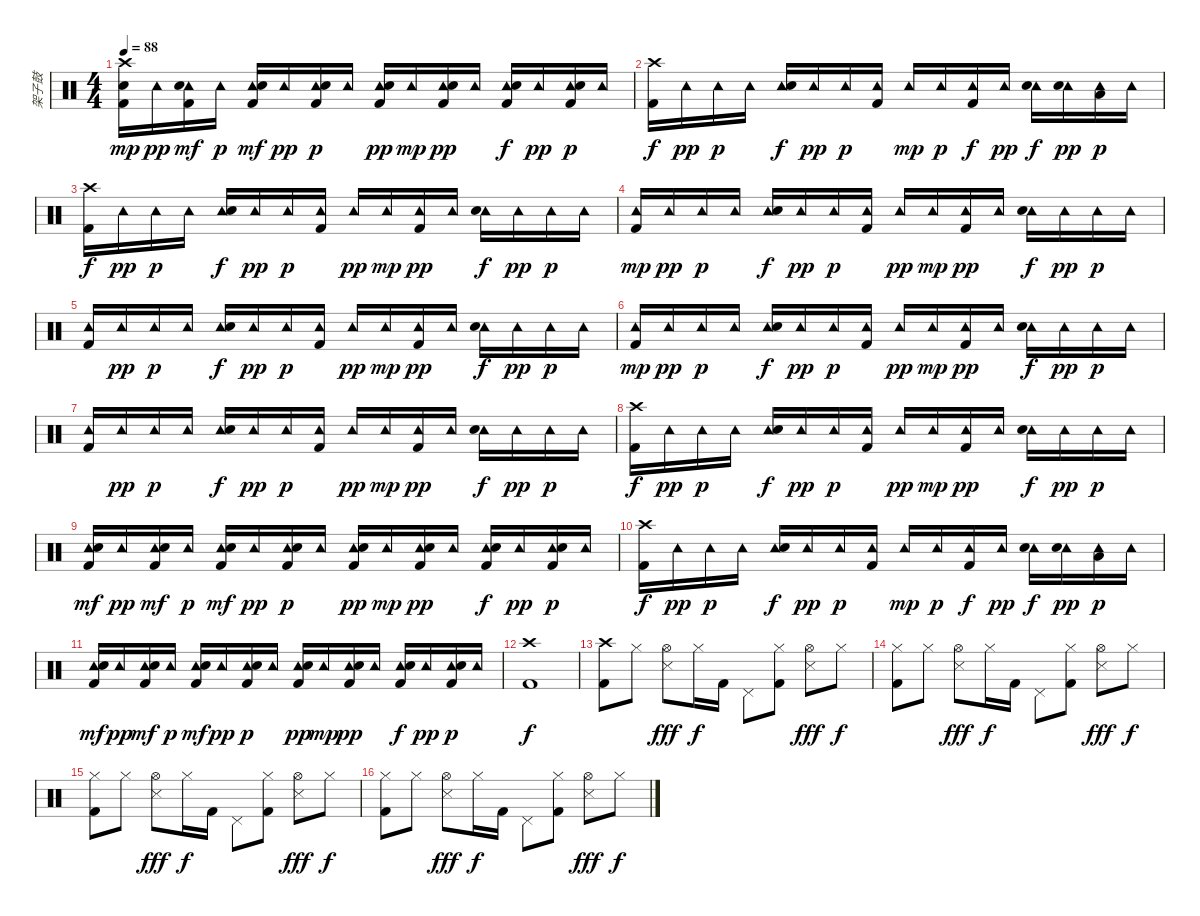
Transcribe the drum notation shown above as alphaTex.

\track ("架子鼓" "架子鼓") {instrument percussion}
\staff {score}
\articulation defaults
\ts (4 4)
\tempo 88
\clef neutral
\ks c
("Crash high (hit)" "Kick (hit) 2" "Electric Snare (hit)").16{dy mp} "Tambourine (hit)".16{dy pp} ("Tambourine (hit)" "Kick (hit) 2" "Electric Snare (hit)").16{dy mf} "Tambourine (hit)".16{dy p} ("Tambourine (hit)" "Kick (hit) 2" "Electric Snare (hit)").16{dy mf} "Tambourine (hit)".16{dy pp} ("Tambourine (hit)" "Kick (hit) 2" "Electric Snare (hit)").16{dy p} "Tambourine (hit)".16 ("Tambourine (hit)" "Kick (hit) 2" "Electric Snare (hit)").16{dy pp} "Tambourine (hit)".16{dy mp} ("Tambourine (hit)" "Kick (hit) 2" "Electric Snare (hit)").16{dy pp} "Tambourine (hit)".16 ("Tambourine (hit)" "Kick (hit) 2" "Electric Snare (hit)").16{dy f} "Tambourine (hit)".16{dy pp} ("Tambourine (hit)" "Kick (hit) 2" "Electric Snare (hit)").16{dy p} "Tambourine (hit)".16 |
("Crash high (hit)" "Kick (hit) 2").16{dy f} "Tambourine (hit)".16{dy pp} "Tambourine (hit)".16{dy p} "Tambourine (hit)".16 ("Tambourine (hit)" "Electric Snare (hit)").16{dy f} "Tambourine (hit)".16{dy pp} "Tambourine (hit)".16{dy p} ("Tambourine (hit)" "Kick (hit) 2").16 "Tambourine (hit)".16{dy mp} "Tambourine (hit)".16{dy p} ("Tambourine (hit)" "Kick (hit) 2").16{dy f} "Tambourine (hit)".16{dy pp} ("Tambourine (hit)" "Electric Snare (hit)").16{dy f} ("Tambourine (hit)" "Electric Snare (hit)").16{dy pp} ("Tambourine (hit)" "Low Tom (hit)").16{dy p} "Tambourine (hit)".16 |
("Crash high (hit)" "Kick (hit) 2").16{dy f} "Tambourine (hit)".16{dy pp} "Tambourine (hit)".16{dy p} "Tambourine (hit)".16 ("Tambourine (hit)" "Electric Snare (hit)").16{dy f} "Tambourine (hit)".16{dy pp} "Tambourine (hit)".16{dy p} ("Tambourine (hit)" "Kick (hit) 2").16 "Tambourine (hit)".16{dy pp} "Tambourine (hit)".16{dy mp} ("Tambourine (hit)" "Kick (hit) 2").16{dy pp} "Tambourine (hit)".16 ("Tambourine (hit)" "Electric Snare (hit)").16{dy f} "Tambourine (hit)".16{dy pp} "Tambourine (hit)".16{dy p} "Tambourine (hit)".16 |
("Tambourine (hit)" "Kick (hit) 2").16{dy mp} "Tambourine (hit)".16{dy pp} "Tambourine (hit)".16{dy p} "Tambourine (hit)".16 ("Tambourine (hit)" "Electric Snare (hit)").16{dy f} "Tambourine (hit)".16{dy pp} "Tambourine (hit)".16{dy p} ("Tambourine (hit)" "Kick (hit) 2").16 "Tambourine (hit)".16{dy pp} "Tambourine (hit)".16{dy mp} ("Tambourine (hit)" "Kick (hit) 2").16{dy pp} "Tambourine (hit)".16 ("Tambourine (hit)" "Electric Snare (hit)").16{dy f} "Tambourine (hit)".16{dy pp} "Tambourine (hit)".16{dy p} "Tambourine (hit)".16 |
("Tambourine (hit)" "Kick (hit) 2").16 "Tambourine (hit)".16{dy pp} "Tambourine (hit)".16{dy p} "Tambourine (hit)".16 ("Tambourine (hit)" "Electric Snare (hit)").16{dy f} "Tambourine (hit)".16{dy pp} "Tambourine (hit)".16{dy p} ("Tambourine (hit)" "Kick (hit) 2").16 "Tambourine (hit)".16{dy pp} "Tambourine (hit)".16{dy mp} ("Tambourine (hit)" "Kick (hit) 2").16{dy pp} "Tambourine (hit)".16 ("Tambourine (hit)" "Electric Snare (hit)").16{dy f} "Tambourine (hit)".16{dy pp} "Tambourine (hit)".16{dy p} "Tambourine (hit)".16 |
("Tambourine (hit)" "Kick (hit) 2").16{dy mp} "Tambourine (hit)".16{dy pp} "Tambourine (hit)".16{dy p} "Tambourine (hit)".16 ("Tambourine (hit)" "Electric Snare (hit)").16{dy f} "Tambourine (hit)".16{dy pp} "Tambourine (hit)".16{dy p} ("Tambourine (hit)" "Kick (hit) 2").16 "Tambourine (hit)".16{dy pp} "Tambourine (hit)".16{dy mp} ("Tambourine (hit)" "Kick (hit) 2").16{dy pp} "Tambourine (hit)".16 ("Tambourine (hit)" "Electric Snare (hit)").16{dy f} "Tambourine (hit)".16{dy pp} "Tambourine (hit)".16{dy p} "Tambourine (hit)".16 |
("Tambourine (hit)" "Kick (hit) 2").16 "Tambourine (hit)".16{dy pp} "Tambourine (hit)".16{dy p} "Tambourine (hit)".16 ("Tambourine (hit)" "Electric Snare (hit)").16{dy f} "Tambourine (hit)".16{dy pp} "Tambourine (hit)".16{dy p} ("Tambourine (hit)" "Kick (hit) 2").16 "Tambourine (hit)".16{dy pp} "Tambourine (hit)".16{dy mp} ("Tambourine (hit)" "Kick (hit) 2").16{dy pp} "Tambourine (hit)".16 ("Tambourine (hit)" "Electric Snare (hit)").16{dy f} "Tambourine (hit)".16{dy pp} "Tambourine (hit)".16{dy p} "Tambourine (hit)".16 |
("Crash high (hit)" "Kick (hit) 2").16{dy f} "Tambourine (hit)".16{dy pp} "Tambourine (hit)".16{dy p} "Tambourine (hit)".16 ("Tambourine (hit)" "Electric Snare (hit)").16{dy f} "Tambourine (hit)".16{dy pp} "Tambourine (hit)".16{dy p} ("Tambourine (hit)" "Kick (hit) 2").16 "Tambourine (hit)".16{dy pp} "Tambourine (hit)".16{dy mp} ("Tambourine (hit)" "Kick (hit) 2").16{dy pp} "Tambourine (hit)".16 ("Tambourine (hit)" "Electric Snare (hit)").16{dy f} "Tambourine (hit)".16{dy pp} "Tambourine (hit)".16{dy p} "Tambourine (hit)".16 |
("Tambourine (hit)" "Kick (hit) 2" "Electric Snare (hit)").16{dy mf} "Tambourine (hit)".16{dy pp} ("Tambourine (hit)" "Kick (hit) 2" "Electric Snare (hit)").16{dy mf} "Tambourine (hit)".16{dy p} ("Tambourine (hit)" "Kick (hit) 2" "Electric Snare (hit)").16{dy mf} "Tambourine (hit)".16{dy pp} ("Tambourine (hit)" "Kick (hit) 2" "Electric Snare (hit)").16{dy p} "Tambourine (hit)".16 ("Tambourine (hit)" "Kick (hit) 2" "Electric Snare (hit)").16{dy pp} "Tambourine (hit)".16{dy mp} ("Tambourine (hit)" "Kick (hit) 2" "Electric Snare (hit)").16{dy pp} "Tambourine (hit)".16 ("Tambourine (hit)" "Kick (hit) 2" "Electric Snare (hit)").16{dy f} "Tambourine (hit)".16{dy pp} ("Tambourine (hit)" "Kick (hit) 2" "Electric Snare (hit)").16{dy p} "Tambourine (hit)".16 |
("Crash high (hit)" "Kick (hit) 2").16{dy f} "Tambourine (hit)".16{dy pp} "Tambourine (hit)".16{dy p} "Tambourine (hit)".16 ("Tambourine (hit)" "Electric Snare (hit)").16{dy f} "Tambourine (hit)".16{dy pp} "Tambourine (hit)".16{dy p} ("Tambourine (hit)" "Kick (hit) 2").16 "Tambourine (hit)".16{dy mp} "Tambourine (hit)".16{dy p} ("Tambourine (hit)" "Kick (hit) 2").16{dy f} "Tambourine (hit)".16{dy pp} ("Tambourine (hit)" "Electric Snare (hit)").16{dy f} ("Tambourine (hit)" "Electric Snare (hit)").16{dy pp} ("Tambourine (hit)" "Low Tom (hit)").16{dy p} "Tambourine (hit)".16 |
("Tambourine (hit)" "Kick (hit) 2" "Electric Snare (hit)").16{dy mf} "Tambourine (hit)".16{dy pp} ("Tambourine (hit)" "Kick (hit) 2" "Electric Snare (hit)").16{dy mf} "Tambourine (hit)".16{dy p} ("Tambourine (hit)" "Kick (hit) 2" "Electric Snare (hit)").16{dy mf} "Tambourine (hit)".16{dy pp} ("Tambourine (hit)" "Kick (hit) 2" "Electric Snare (hit)").16{dy p} "Tambourine (hit)".16 ("Tambourine (hit)" "Kick (hit) 2" "Electric Snare (hit)").16{dy pp} "Tambourine (hit)".16{dy mp} ("Tambourine (hit)" "Kick (hit) 2" "Electric Snare (hit)").16{dy pp} "Tambourine (hit)".16 ("Tambourine (hit)" "Kick (hit) 2" "Electric Snare (hit)").16{dy f} "Tambourine (hit)".16{dy pp} ("Tambourine (hit)" "Kick (hit) 2" "Electric Snare (hit)").16{dy p} "Tambourine (hit)".16 |
("Crash high (hit)" "Kick (hit) 2").1{dy f} |
("Crash high (hit)" "Kick (hit) 2").8 "Hi-Hat (closed)".8 ("Hi-Hat (open)" "Snare (side stick) 3").8{dy fff} "Hi-Hat (closed)".16{dy f} "Kick (hit) 2".16 "Pedal Hi-Hat (hit)".8 ("Hi-Hat (closed)" "Kick (hit) 2").8 ("Hi-Hat (open)" "Snare (side stick) 3").8{dy fff} "Hi-Hat (closed)".8{dy f} |
("Hi-Hat (closed)" "Kick (hit) 2").8 "Hi-Hat (closed)".8 ("Hi-Hat (open)" "Snare (side stick) 3").8{dy fff} "Hi-Hat (closed)".16{dy f} "Kick (hit) 2".16 "Pedal Hi-Hat (hit)".8 ("Hi-Hat (closed)" "Kick (hit) 2").8 ("Hi-Hat (open)" "Snare (side stick) 3").8{dy fff} "Hi-Hat (closed)".8{dy f} |
("Hi-Hat (closed)" "Kick (hit) 2").8 "Hi-Hat (closed)".8 ("Hi-Hat (open)" "Snare (side stick) 3").8{dy fff} "Hi-Hat (closed)".16{dy f} "Kick (hit) 2".16 "Pedal Hi-Hat (hit)".8 ("Hi-Hat (closed)" "Kick (hit) 2").8 ("Hi-Hat (open)" "Snare (side stick) 3").8{dy fff} "Hi-Hat (closed)".8{dy f} |
("Hi-Hat (closed)" "Kick (hit) 2").8 "Hi-Hat (closed)".8 ("Hi-Hat (open)" "Snare (side stick) 3").8{dy fff} "Hi-Hat (closed)".16{dy f} "Kick (hit) 2".16 "Pedal Hi-Hat (hit)".8 ("Hi-Hat (closed)" "Kick (hit) 2").8 ("Hi-Hat (open)" "Snare (side stick) 3").8{dy fff} "Hi-Hat (closed)".8{dy f}
